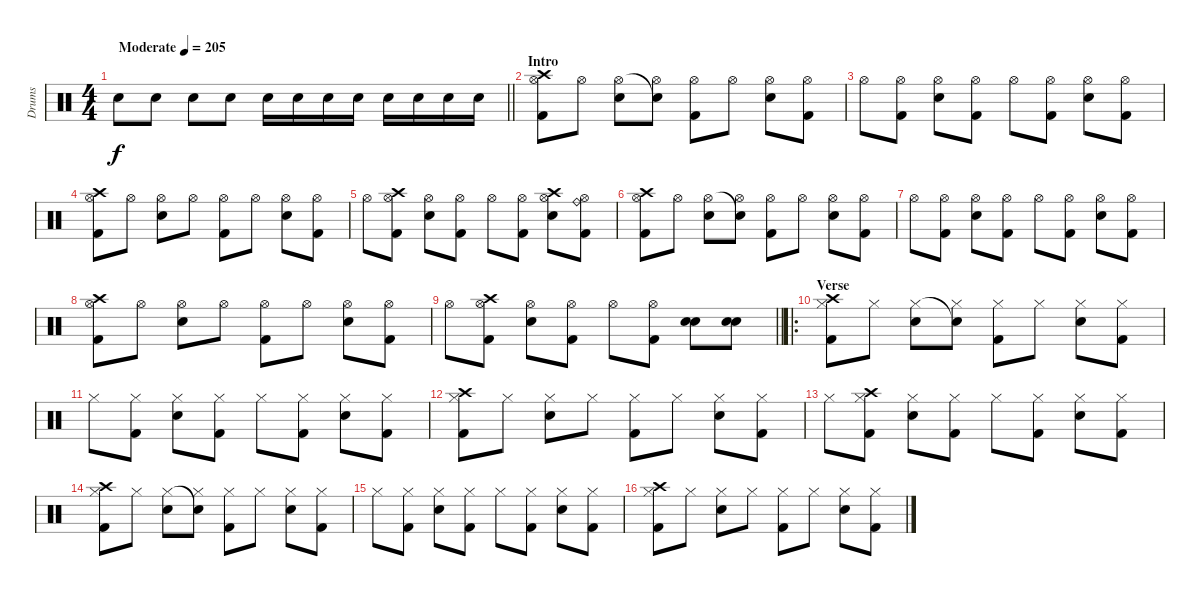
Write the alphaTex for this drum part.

\track ("Drums" "Drums") {instrument percussion}
\staff {score}
\articulation defaults
\ts (4 4)
\tempo (205 "Moderate")
\clef neutral
\barLineRight lightlight
\ks c "Electric Snare (hit)".8{dy f} "Electric Snare (hit)".8 "Electric Snare (hit)".8 "Electric Snare (hit)".8 "Electric Snare (hit)".16 "Electric Snare (hit)".16 "Electric Snare (hit)".16 "Electric Snare (hit)".16 "Electric Snare (hit)".16 "Electric Snare (hit)".16 "Electric Snare (hit)".16 "Electric Snare (hit)".16
|
\section ("" "Intro")
("Crash high (hit)" "Hi-Hat (open)" "Kick (hit) 2").8 "Hi-Hat (open)".8 ("Hi-Hat (open)" "Electric Snare (hit)").8 ("Snare (hit)"{t} "Hi-Hat (open)").8 ("Hi-Hat (open)" "Kick (hit) 2").8 "Hi-Hat (open)".8 ("Hi-Hat (open)" "Electric Snare (hit)").8 ("Hi-Hat (open)" "Kick (hit) 2").8 |
"Hi-Hat (open)".8 ("Hi-Hat (open)" "Kick (hit) 2").8 ("Hi-Hat (open)" "Electric Snare (hit)").8 ("Hi-Hat (open)" "Kick (hit) 2").8 "Hi-Hat (open)".8 ("Hi-Hat (open)" "Kick (hit) 2").8 ("Hi-Hat (open)" "Electric Snare (hit)").8 ("Hi-Hat (open)" "Kick (hit) 2").8 |
("Crash high (hit)" "Hi-Hat (open)" "Kick (hit) 2").8 "Hi-Hat (open)".8 ("Hi-Hat (open)" "Electric Snare (hit)").8 "Hi-Hat (open)".8 ("Hi-Hat (open)" "Kick (hit) 2").8 "Hi-Hat (open)".8 ("Hi-Hat (open)" "Electric Snare (hit)").8 ("Hi-Hat (open)" "Kick (hit) 2").8 |
"Hi-Hat (open)".8 ("Crash high (hit)" "Hi-Hat (open)" "Kick (hit) 2").8 ("Hi-Hat (open)" "Electric Snare (hit)").8 ("Hi-Hat (open)" "Kick (hit) 2").8 "Hi-Hat (open)".8 ("Hi-Hat (open)" "Kick (hit) 2").8 ("Crash high (hit)" "Hi-Hat (open)" "Electric Snare (hit)").8 ("Ride (bell)" "Hi-Hat (open)" "Kick (hit) 2").8 |
("Crash high (hit)" "Hi-Hat (open)" "Kick (hit) 2").8 "Hi-Hat (open)".8 ("Hi-Hat (open)" "Electric Snare (hit)").8 ("Snare (hit)"{t} "Hi-Hat (open)").8 ("Hi-Hat (open)" "Kick (hit) 2").8 "Hi-Hat (open)".8 ("Hi-Hat (open)" "Electric Snare (hit)").8 ("Hi-Hat (open)" "Kick (hit) 2").8 |
"Hi-Hat (open)".8 ("Hi-Hat (open)" "Kick (hit) 2").8 ("Hi-Hat (open)" "Electric Snare (hit)").8 ("Hi-Hat (open)" "Kick (hit) 2").8 "Hi-Hat (open)".8 ("Hi-Hat (open)" "Kick (hit) 2").8 ("Hi-Hat (open)" "Electric Snare (hit)").8 ("Hi-Hat (open)" "Kick (hit) 2").8 |
("Crash high (hit)" "Hi-Hat (open)" "Kick (hit) 2").8 "Hi-Hat (open)".8 ("Hi-Hat (open)" "Electric Snare (hit)").8 "Hi-Hat (open)".8 ("Hi-Hat (open)" "Kick (hit) 2").8 "Hi-Hat (open)".8 ("Hi-Hat (open)" "Electric Snare (hit)").8 ("Hi-Hat (open)" "Kick (hit) 2").8 |
\barLineRight lightlight "Hi-Hat (open)".8
("Crash high (hit)" "Hi-Hat (open)" "Kick (hit) 2").8 ("Hi-Hat (open)" "Electric Snare (hit)").8 ("Hi-Hat (open)" "Kick (hit) 2").8 "Hi-Hat (open)".8 ("Hi-Hat (open)" "Kick (hit) 2").8 ("Electric Snare (hit)" "Electric Snare (hit)").8 ("Electric Snare (hit)" "Electric Snare (hit)").8 |
\ro
\section ("" "Verse")
("Crash high (hit)" "Hi-Hat (closed)" "Kick (hit) 2").8 "Hi-Hat (closed)".8 ("Hi-Hat (closed)" "Electric Snare (hit)").8 ("Snare (hit)"{t} "Hi-Hat (closed)").8 ("Hi-Hat (closed)" "Kick (hit) 2").8 "Hi-Hat (closed)".8 ("Hi-Hat (closed)" "Electric Snare (hit)").8 ("Hi-Hat (closed)" "Kick (hit) 2").8 |
"Hi-Hat (closed)".8 ("Hi-Hat (closed)" "Kick (hit) 2").8 ("Hi-Hat (closed)" "Electric Snare (hit)").8 ("Hi-Hat (closed)" "Kick (hit) 2").8 "Hi-Hat (closed)".8 ("Hi-Hat (closed)" "Kick (hit) 2").8 ("Hi-Hat (closed)" "Electric Snare (hit)").8 ("Hi-Hat (closed)" "Kick (hit) 2").8 |
("Crash high (hit)" "Hi-Hat (closed)" "Kick (hit) 2").8 "Hi-Hat (closed)".8 ("Hi-Hat (closed)" "Electric Snare (hit)").8 "Hi-Hat (closed)".8 ("Hi-Hat (closed)" "Kick (hit) 2").8 "Hi-Hat (closed)".8 ("Hi-Hat (closed)" "Electric Snare (hit)").8 ("Hi-Hat (closed)" "Kick (hit) 2").8 |
"Hi-Hat (closed)".8 ("Crash high (hit)" "Hi-Hat (closed)" "Kick (hit) 2").8 ("Hi-Hat (closed)" "Electric Snare (hit)").8 ("Hi-Hat (closed)" "Kick (hit) 2").8 "Hi-Hat (closed)".8 ("Hi-Hat (closed)" "Kick (hit) 2").8 ("Hi-Hat (closed)" "Electric Snare (hit)").8 ("Hi-Hat (closed)" "Kick (hit) 2").8 |
("Crash high (hit)" "Hi-Hat (closed)" "Kick (hit) 2").8 "Hi-Hat (closed)".8 ("Hi-Hat (closed)" "Electric Snare (hit)").8 ("Snare (hit)"{t} "Hi-Hat (closed)").8 ("Hi-Hat (closed)" "Kick (hit) 2").8 "Hi-Hat (closed)".8 ("Hi-Hat (closed)" "Electric Snare (hit)").8 ("Hi-Hat (closed)" "Kick (hit) 2").8 |
"Hi-Hat (closed)".8 ("Hi-Hat (closed)" "Kick (hit) 2").8 ("Hi-Hat (closed)" "Electric Snare (hit)").8 ("Hi-Hat (closed)" "Kick (hit) 2").8 "Hi-Hat (closed)".8 ("Hi-Hat (closed)" "Kick (hit) 2").8 ("Hi-Hat (closed)" "Electric Snare (hit)").8 ("Hi-Hat (closed)" "Kick (hit) 2").8 |
("Crash high (hit)" "Hi-Hat (closed)" "Kick (hit) 2").8 "Hi-Hat (closed)".8 ("Hi-Hat (closed)" "Electric Snare (hit)").8 "Hi-Hat (closed)".8 ("Hi-Hat (closed)" "Kick (hit) 2").8 "Hi-Hat (closed)".8 ("Hi-Hat (closed)" "Electric Snare (hit)").8 ("Hi-Hat (closed)" "Kick (hit) 2").8
